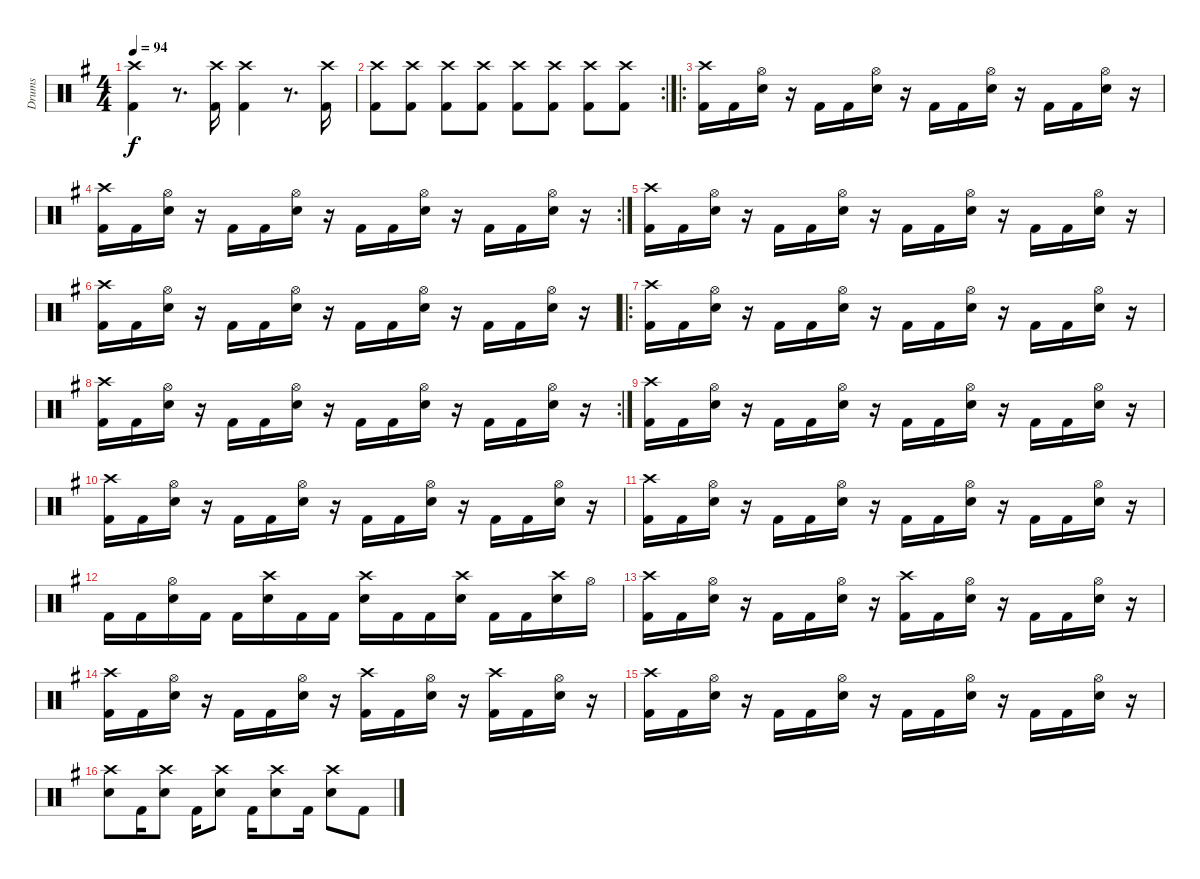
\track ("Drums" "Drums") {instrument percussion}
\staff {score}
\articulation defaults
\ts (4 4)
\tempo 94
\clef neutral
\ks g
("Crash high (hit)" "Kick (hit) 2").4{dy f} r.8{d} ("Crash high (hit)" "Kick (hit) 2").16 ("Crash high (hit)" "Kick (hit) 2").4 r.8{d} ("Crash high (hit)" "Kick (hit) 2").16 |
\rc 2
("Crash high (hit)" "Kick (hit) 2").8 ("Crash high (hit)" "Kick (hit) 2").8 ("Crash high (hit)" "Kick (hit) 2").8 ("Crash high (hit)" "Kick (hit) 2").8 ("Crash high (hit)" "Kick (hit) 2").8 ("Crash high (hit)" "Kick (hit) 2").8 ("Crash high (hit)" "Kick (hit) 2").8 ("Crash high (hit)" "Kick (hit) 2").8 |
\ro
("Crash high (hit)" "Kick (hit) 2").16 "Kick (hit) 2".16 ("Hi-Hat (open)" "Snare (hit) 2").16 r.16 "Kick (hit) 2".16 "Kick (hit) 2".16 ("Hi-Hat (open)" "Snare (hit) 2").16 r.16 "Kick (hit) 2".16 "Kick (hit) 2".16 ("Hi-Hat (open)" "Snare (hit) 2").16 r.16 "Kick (hit) 2".16 "Kick (hit) 2".16 ("Hi-Hat (open)" "Snare (hit) 2").16 r.16 |
\rc 2
("Crash high (hit)" "Kick (hit) 2").16 "Kick (hit) 2".16 ("Hi-Hat (open)" "Snare (hit) 2").16 r.16 "Kick (hit) 2".16 "Kick (hit) 2".16 ("Hi-Hat (open)" "Snare (hit) 2").16 r.16 "Kick (hit) 2".16 "Kick (hit) 2".16 ("Hi-Hat (open)" "Snare (hit) 2").16 r.16 "Kick (hit) 2".16 "Kick (hit) 2".16 ("Hi-Hat (open)" "Snare (hit) 2").16 r.16 |
("Crash high (hit)" "Kick (hit) 2").16 "Kick (hit) 2".16 ("Hi-Hat (open)" "Snare (hit) 2").16 r.16 "Kick (hit) 2".16 "Kick (hit) 2".16 ("Hi-Hat (open)" "Snare (hit) 2").16 r.16 "Kick (hit) 2".16 "Kick (hit) 2".16 ("Hi-Hat (open)" "Snare (hit) 2").16 r.16 "Kick (hit) 2".16 "Kick (hit) 2".16 ("Hi-Hat (open)" "Snare (hit) 2").16 r.16 |
("Crash high (hit)" "Kick (hit) 2").16 "Kick (hit) 2".16 ("Hi-Hat (open)" "Snare (hit) 2").16 r.16 "Kick (hit) 2".16 "Kick (hit) 2".16 ("Hi-Hat (open)" "Snare (hit) 2").16 r.16 "Kick (hit) 2".16 "Kick (hit) 2".16 ("Hi-Hat (open)" "Snare (hit) 2").16 r.16 "Kick (hit) 2".16 "Kick (hit) 2".16 ("Hi-Hat (open)" "Snare (hit) 2").16 r.16 |
\ro
("Crash high (hit)" "Kick (hit) 2").16 "Kick (hit) 2".16 ("Hi-Hat (open)" "Snare (hit) 2").16 r.16 "Kick (hit) 2".16 "Kick (hit) 2".16 ("Hi-Hat (open)" "Snare (hit) 2").16 r.16 "Kick (hit) 2".16 "Kick (hit) 2".16 ("Hi-Hat (open)" "Snare (hit) 2").16 r.16 "Kick (hit) 2".16 "Kick (hit) 2".16 ("Hi-Hat (open)" "Snare (hit) 2").16 r.16 |
\rc 2
("Crash high (hit)" "Kick (hit) 2").16 "Kick (hit) 2".16 ("Hi-Hat (open)" "Snare (hit) 2").16 r.16 "Kick (hit) 2".16 "Kick (hit) 2".16 ("Hi-Hat (open)" "Snare (hit) 2").16 r.16 "Kick (hit) 2".16 "Kick (hit) 2".16 ("Hi-Hat (open)" "Snare (hit) 2").16 r.16 "Kick (hit) 2".16 "Kick (hit) 2".16 ("Hi-Hat (open)" "Snare (hit) 2").16 r.16 |
("Crash high (hit)" "Kick (hit) 2").16 "Kick (hit) 2".16 ("Hi-Hat (open)" "Snare (hit) 2").16 r.16 "Kick (hit) 2".16 "Kick (hit) 2".16 ("Hi-Hat (open)" "Snare (hit) 2").16 r.16 "Kick (hit) 2".16 "Kick (hit) 2".16 ("Hi-Hat (open)" "Snare (hit) 2").16 r.16 "Kick (hit) 2".16 "Kick (hit) 2".16 ("Hi-Hat (open)" "Snare (hit) 2").16 r.16 |
("Crash high (hit)" "Kick (hit) 2").16 "Kick (hit) 2".16 ("Hi-Hat (open)" "Snare (hit) 2").16 r.16 "Kick (hit) 2".16 "Kick (hit) 2".16 ("Hi-Hat (open)" "Snare (hit) 2").16 r.16 "Kick (hit) 2".16 "Kick (hit) 2".16 ("Hi-Hat (open)" "Snare (hit) 2").16 r.16 "Kick (hit) 2".16 "Kick (hit) 2".16 ("Hi-Hat (open)" "Snare (hit) 2").16 r.16 |
("Crash high (hit)" "Kick (hit) 2").16 "Kick (hit) 2".16 ("Hi-Hat (open)" "Snare (hit) 2").16 r.16 "Kick (hit) 2".16 "Kick (hit) 2".16 ("Hi-Hat (open)" "Snare (hit) 2").16 r.16 "Kick (hit) 2".16 "Kick (hit) 2".16 ("Hi-Hat (open)" "Snare (hit) 2").16 r.16 "Kick (hit) 2".16 "Kick (hit) 2".16 ("Hi-Hat (open)" "Snare (hit) 2").16 r.16 |
"Kick (hit) 2".16 "Kick (hit) 2".16 ("Hi-Hat (open)" "Snare (hit) 2").16 "Kick (hit) 2".16 "Kick (hit) 2".16 ("Crash high (hit)" "Snare (hit) 2").16 "Kick (hit) 2".16 "Kick (hit) 2".16 ("Crash high (hit)" "Snare (hit) 2").16 "Kick (hit) 2".16 "Kick (hit) 2".16 ("Crash high (hit)" "Snare (hit) 2").16 "Kick (hit) 2".16 "Kick (hit) 2".16 ("Crash high (hit)" "Snare (hit) 2").16 "Hi-Hat (open)".16 |
("Crash high (hit)" "Kick (hit) 2").16 "Kick (hit) 2".16 ("Hi-Hat (open)" "Snare (hit) 2").16 r.16 "Kick (hit) 2".16 "Kick (hit) 2".16 ("Hi-Hat (open)" "Snare (hit) 2").16 r.16 ("Crash high (hit)" "Kick (hit) 2").16 "Kick (hit) 2".16 ("Hi-Hat (open)" "Snare (hit) 2").16 r.16 "Kick (hit) 2".16 "Kick (hit) 2".16 ("Hi-Hat (open)" "Snare (hit) 2").16 r.16 |
("Crash high (hit)" "Kick (hit) 2").16 "Kick (hit) 2".16 ("Hi-Hat (open)" "Snare (hit) 2").16 r.16 "Kick (hit) 2".16 "Kick (hit) 2".16 ("Hi-Hat (open)" "Snare (hit) 2").16 r.16 ("Crash high (hit)" "Kick (hit) 2").16 "Kick (hit) 2".16 ("Hi-Hat (open)" "Snare (hit) 2").16 r.16 ("Crash high (hit)" "Kick (hit) 2").16 "Kick (hit) 2".16 ("Hi-Hat (open)" "Snare (hit) 2").16 r.16 |
("Crash high (hit)" "Kick (hit) 2").16 "Kick (hit) 2".16 ("Hi-Hat (open)" "Snare (hit) 2").16 r.16 "Kick (hit) 2".16 "Kick (hit) 2".16 ("Hi-Hat (open)" "Snare (hit) 2").16 r.16 "Kick (hit) 2".16 "Kick (hit) 2".16 ("Hi-Hat (open)" "Snare (hit) 2").16 r.16 "Kick (hit) 2".16 "Kick (hit) 2".16 ("Hi-Hat (open)" "Snare (hit) 2").16 r.16 |
("Crash high (hit)" "Snare (hit) 2").8 "Kick (hit) 2".16 ("Crash high (hit)" "Snare (hit) 2").8 "Kick (hit) 2".16 ("Crash high (hit)" "Snare (hit) 2").8 "Kick (hit) 2".16 ("Crash high (hit)" "Snare (hit) 2").8 "Kick (hit) 2".16 ("Crash high (hit)" "Snare (hit) 2").8 "Kick (hit) 2".8
